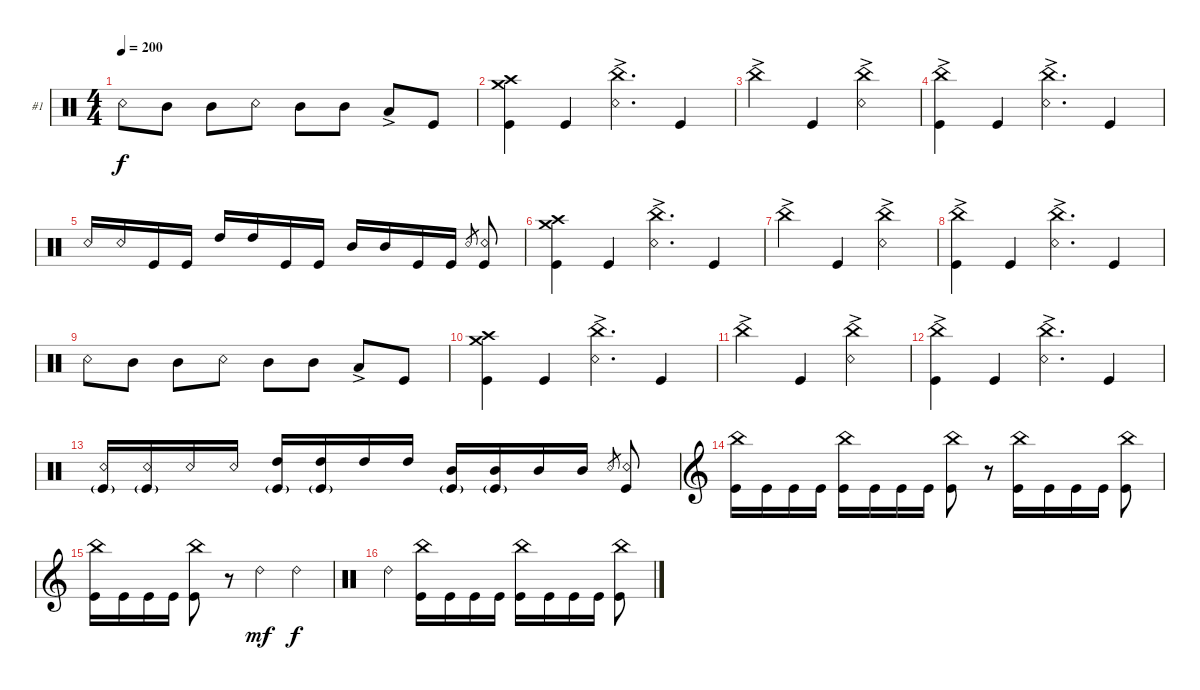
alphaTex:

\bracketExtendMode groupsimilarinstruments
\firstSystemTrackNameOrientation horizontal
\otherSystemsTrackNameOrientation horizontal
\track ("Joey Jordison" "#1") {instrument percussion}
\staff {score}
\articulation defaults
\ts (4 4)
\tempo 200
\clef neutral
\ks c "Snare (rim shot)".8{dy f} "Mid Tom (hit)".8 "Mid Tom (hit)".8 "Snare (rim shot)".8 "Mid Tom (hit)".8 "Mid Tom (hit)".8 "Low Tom (hit)"{ac}.8 "Kick (hit)".8
|
("Kick (hit)" "Crash medium (hit)" "Crash high (hit)").4 "Kick (hit)".4 ("Snare (rim shot)" "China (hit)"{ac}).4{d} "Kick (hit)".4 |
"China (hit)"{ac}.4 "Kick (hit)".4 ("Snare (rim shot)" "China (hit)"{ac}).4 |
("Kick (hit)" "China (hit)"{ac}).4 "Kick (hit)".4 ("Snare (rim shot)" "China (hit)"{ac}).4{d} "Kick (hit)".4 |
"Snare (rim shot)".16 "Snare (rim shot)".16 "Kick (hit)".16 "Kick (hit)".16 "High Tom (hit)".16 "High Tom (hit)".16 "Kick (hit)".16 "Kick (hit)".16 "Mid Tom (hit)".16 "Mid Tom (hit)".16 "Kick (hit)".16 "Kick (hit)".16 "Snare (rim shot)".8{gr} ("Snare (rim shot)" "Kick (hit)").8 |
("Kick (hit)" "Crash medium (hit)" "Crash high (hit)").4 "Kick (hit)".4 ("Snare (rim shot)" "China (hit)"{ac}).4{d} "Kick (hit)".4 |
"China (hit)"{ac}.4 "Kick (hit)".4 ("Snare (rim shot)" "China (hit)"{ac}).4 |
("Kick (hit)" "China (hit)"{ac}).4 "Kick (hit)".4 ("Snare (rim shot)" "China (hit)"{ac}).4{d} "Kick (hit)".4 |
"Snare (rim shot)".8 "Mid Tom (hit)".8 "Mid Tom (hit)".8 "Snare (rim shot)".8 "Mid Tom (hit)".8 "Mid Tom (hit)".8 "Low Tom (hit)"{ac}.8 "Kick (hit)".8 |
("Kick (hit)" "Crash medium (hit)" "Crash high (hit)").4 "Kick (hit)".4 ("Snare (rim shot)" "China (hit)"{ac}).4{d} "Kick (hit)".4 |
"China (hit)"{ac}.4 "Kick (hit)".4 ("Snare (rim shot)" "China (hit)"{ac}).4 |
("Kick (hit)" "China (hit)"{ac}).4 "Kick (hit)".4 ("Snare (rim shot)" "China (hit)"{ac}).4{d} "Kick (hit)".4 |
("Snare (rim shot)" "Kick (hit)"{g}).16 ("Snare (rim shot)" "Kick (hit)"{g}).16 "Snare (rim shot)".16 "Snare (rim shot)".16 ("High Tom (hit)" "Kick (hit)"{g}).16 ("High Tom (hit)" "Kick (hit)"{g}).16 "High Tom (hit)".16 "High Tom (hit)".16 ("Mid Tom (hit)" "Kick (hit)"{g}).16 ("Mid Tom (hit)" "Kick (hit)"{g}).16 "Mid Tom (hit)".16 "Mid Tom (hit)".16 "Snare (rim shot)".8{gr} ("Snare (rim shot)" "Kick (hit)").8 |
\clef g2
("Kick (hit)" "China (hit)").16 "Kick (hit)".16 "Kick (hit)".16 "Kick (hit)".16 ("Kick (hit)" "China (hit)").16 "Kick (hit)".16 "Kick (hit)".16 "Kick (hit)".16 ("Kick (hit)" "China (hit)").8 r.8 ("Kick (hit)" "China (hit)").16 "Kick (hit)".16 "Kick (hit)".16 "Kick (hit)".16 ("Kick (hit)" "China (hit)").8 |
("Kick (hit)" "China (hit)").16 "Kick (hit)".16 "Kick (hit)".16 "Kick (hit)".16 ("Kick (hit)" "China (hit)").8 r.8 "Ride (bell) 2".4{dy mf} "Ride (bell) 2".4{dy f} |
\clef neutral "Ride (bell) 2".4
("Kick (hit)" "China (hit)").16 "Kick (hit)".16 "Kick (hit)".16 "Kick (hit)".16 ("Kick (hit)" "China (hit)").16 "Kick (hit)".16 "Kick (hit)".16 "Kick (hit)".16 ("Kick (hit)" "China (hit)").8
